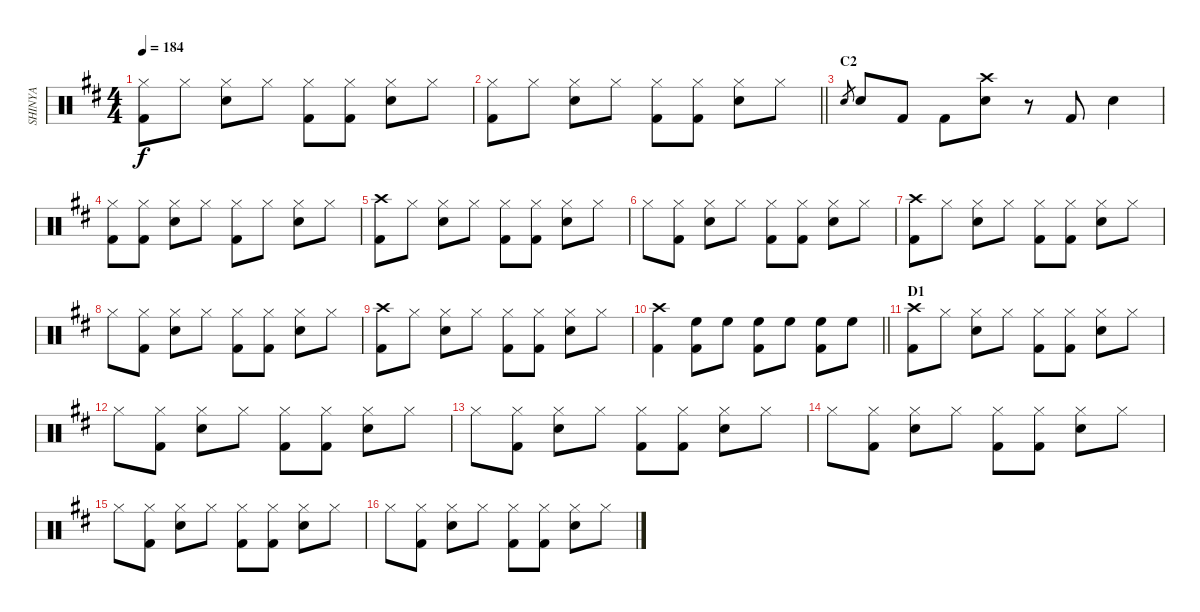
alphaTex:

\track ("SHINYA" "SHINYA") {instrument percussion}
\staff {score}
\articulation defaults
\ts (4 4)
\tempo 184
\clef neutral
\ks bminor
("Hi-Hat (closed)" "Kick (hit) 2").8{dy f} "Hi-Hat (closed)".8 ("Hi-Hat (closed)" "Snare (hit) 2").8 "Hi-Hat (closed)".8 ("Hi-Hat (closed)" "Kick (hit) 2").8 ("Hi-Hat (closed)" "Kick (hit) 2").8 ("Hi-Hat (closed)" "Snare (hit) 2").8 "Hi-Hat (closed)".8 |
\barLineRight lightlight
("Hi-Hat (closed)" "Kick (hit) 2").8 "Hi-Hat (closed)".8 ("Hi-Hat (closed)" "Snare (hit) 2").8 "Hi-Hat (closed)".8 ("Hi-Hat (closed)" "Kick (hit) 2").8 ("Hi-Hat (closed)" "Kick (hit) 2").8 ("Hi-Hat (closed)" "Snare (hit) 2").8 "Hi-Hat (closed)".8 |
\section ("" "C2")
"Snare (hit) 2".8{gr} "Snare (hit) 2".8 "Kick (hit) 2".8 "Kick (hit) 2".8 ("Crash high (hit)" "Snare (hit) 2").8 r.8 "Kick (hit) 2".8 "Snare (hit) 2".4 |
("Hi-Hat (closed)" "Kick (hit) 2").8 ("Hi-Hat (closed)" "Kick (hit) 2").8 ("Hi-Hat (closed)" "Snare (hit) 2").8 "Hi-Hat (closed)".8 ("Hi-Hat (closed)" "Kick (hit) 2").8 "Hi-Hat (closed)".8 ("Hi-Hat (closed)" "Snare (hit) 2").8 "Hi-Hat (closed)".8 |
("Crash high (hit)" "Kick (hit) 2").8 "Hi-Hat (closed)".8 ("Hi-Hat (closed)" "Snare (hit) 2").8 "Hi-Hat (closed)".8 ("Hi-Hat (closed)" "Kick (hit) 2").8 ("Hi-Hat (closed)" "Kick (hit) 2").8 ("Hi-Hat (closed)" "Snare (hit) 2").8 "Hi-Hat (closed)".8 |
"Hi-Hat (closed)".8 ("Hi-Hat (closed)" "Kick (hit) 2").8 ("Hi-Hat (closed)" "Snare (hit) 2").8 "Hi-Hat (closed)".8 ("Hi-Hat (closed)" "Kick (hit) 2").8 ("Hi-Hat (closed)" "Kick (hit) 2").8 ("Hi-Hat (closed)" "Snare (hit) 2").8 "Hi-Hat (closed)".8 |
("Crash high (hit)" "Kick (hit) 2").8 "Hi-Hat (closed)".8 ("Hi-Hat (closed)" "Snare (hit) 2").8 "Hi-Hat (closed)".8 ("Hi-Hat (closed)" "Kick (hit) 2").8 ("Hi-Hat (closed)" "Kick (hit) 2").8 ("Hi-Hat (closed)" "Snare (hit) 2").8 "Hi-Hat (closed)".8 |
"Hi-Hat (closed)".8 ("Hi-Hat (closed)" "Kick (hit) 2").8 ("Hi-Hat (closed)" "Snare (hit) 2").8 "Hi-Hat (closed)".8 ("Hi-Hat (closed)" "Kick (hit) 2").8 ("Hi-Hat (closed)" "Kick (hit) 2").8 ("Hi-Hat (closed)" "Snare (hit) 2").8 "Hi-Hat (closed)".8 |
("Crash high (hit)" "Kick (hit) 2").8 "Hi-Hat (closed)".8 ("Hi-Hat (closed)" "Snare (hit) 2").8 "Hi-Hat (closed)".8 ("Hi-Hat (closed)" "Kick (hit) 2").8 ("Hi-Hat (closed)" "Kick (hit) 2").8 ("Hi-Hat (closed)" "Snare (hit) 2").8 "Hi-Hat (closed)".8 |
\barLineRight lightlight
("Crash high (hit)" "Kick (hit) 2").4 ("High Floor Tom (hit)" "Kick (hit) 2").8 "High Floor Tom (hit)".8 ("High Floor Tom (hit)" "Kick (hit) 2").8 "High Floor Tom (hit)".8 ("High Floor Tom (hit)" "Kick (hit) 2").8 "High Floor Tom (hit)".8 |
\section ("" "D1")
("Crash high (hit)" "Kick (hit) 2").8 "Hi-Hat (closed)".8 ("Hi-Hat (closed)" "Snare (hit) 2").8 "Hi-Hat (closed)".8 ("Hi-Hat (closed)" "Kick (hit) 2").8 ("Hi-Hat (closed)" "Kick (hit) 2").8 ("Hi-Hat (closed)" "Snare (hit) 2").8 "Hi-Hat (closed)".8 |
"Hi-Hat (closed)".8 ("Hi-Hat (closed)" "Kick (hit) 2").8 ("Hi-Hat (closed)" "Snare (hit) 2").8 "Hi-Hat (closed)".8 ("Hi-Hat (closed)" "Kick (hit) 2").8 ("Hi-Hat (closed)" "Kick (hit) 2").8 ("Hi-Hat (closed)" "Snare (hit) 2").8 "Hi-Hat (closed)".8 |
"Hi-Hat (closed)".8 ("Hi-Hat (closed)" "Kick (hit) 2").8 ("Hi-Hat (closed)" "Snare (hit) 2").8 "Hi-Hat (closed)".8 ("Hi-Hat (closed)" "Kick (hit) 2").8 ("Hi-Hat (closed)" "Kick (hit) 2").8 ("Hi-Hat (closed)" "Snare (hit) 2").8 "Hi-Hat (closed)".8 |
"Hi-Hat (closed)".8 ("Hi-Hat (closed)" "Kick (hit) 2").8 ("Hi-Hat (closed)" "Snare (hit) 2").8 "Hi-Hat (closed)".8 ("Hi-Hat (closed)" "Kick (hit) 2").8 ("Hi-Hat (closed)" "Kick (hit) 2").8 ("Hi-Hat (closed)" "Snare (hit) 2").8 "Hi-Hat (closed)".8 |
"Hi-Hat (closed)".8 ("Hi-Hat (closed)" "Kick (hit) 2").8 ("Hi-Hat (closed)" "Snare (hit) 2").8 "Hi-Hat (closed)".8 ("Hi-Hat (closed)" "Kick (hit) 2").8 ("Hi-Hat (closed)" "Kick (hit) 2").8 ("Hi-Hat (closed)" "Snare (hit) 2").8 "Hi-Hat (closed)".8 |
"Hi-Hat (closed)".8 ("Hi-Hat (closed)" "Kick (hit) 2").8 ("Hi-Hat (closed)" "Snare (hit) 2").8 "Hi-Hat (closed)".8 ("Hi-Hat (closed)" "Kick (hit) 2").8 ("Hi-Hat (closed)" "Kick (hit) 2").8 ("Hi-Hat (closed)" "Snare (hit) 2").8 "Hi-Hat (closed)".8
